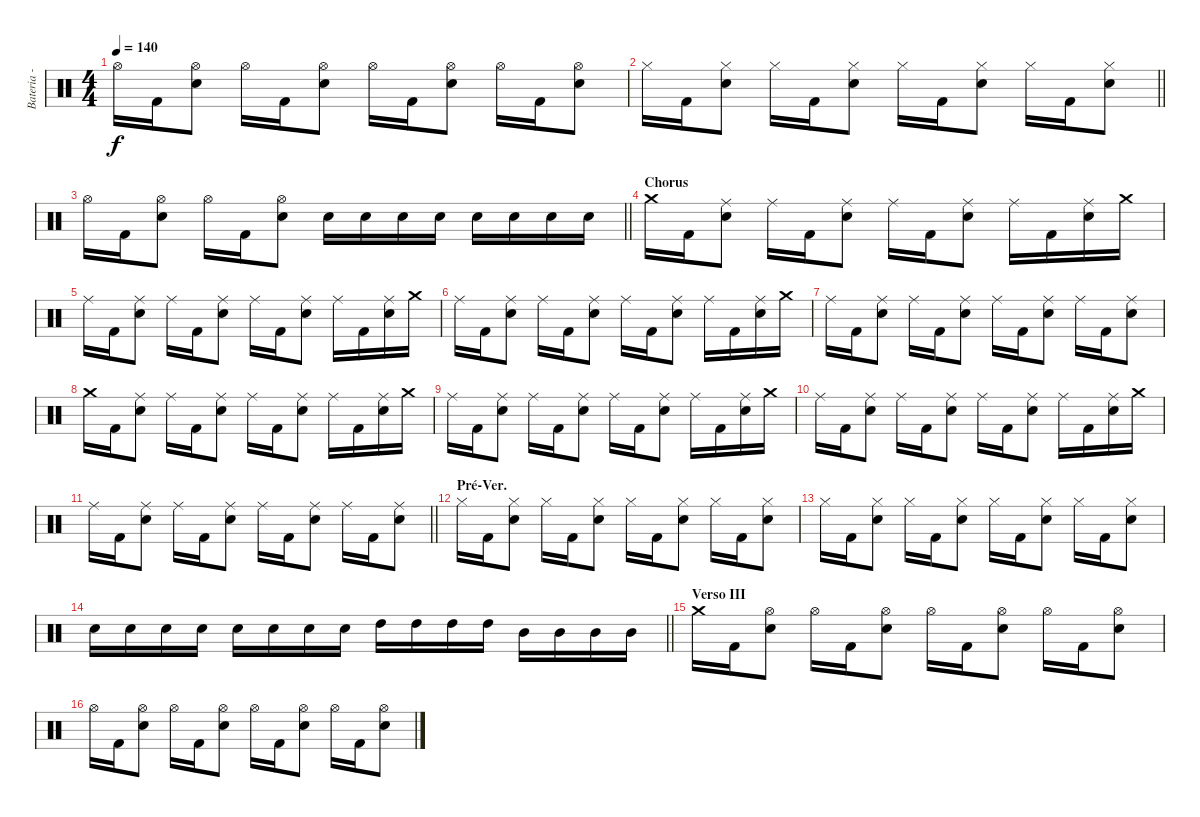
\track ("Bateria - Larzon" "Bateria - ") {instrument percussion}
\staff {score}
\articulation defaults
\ts (4 4)
\tempo 140
\clef neutral
\ks c "Hi-Hat (open)".16{dy f} "Kick (hit) 2".16
("Electric Snare (hit)" "Hi-Hat (open)").8 "Hi-Hat (open)".16 "Kick (hit) 2".16 ("Electric Snare (hit)" "Hi-Hat (open)").8 "Hi-Hat (open)".16 "Kick (hit) 2".16 ("Electric Snare (hit)" "Hi-Hat (open)").8 "Hi-Hat (open)".16 "Kick (hit) 2".16 ("Electric Snare (hit)" "Hi-Hat (open)").8 |
\barLineRight lightlight "Hi-Hat (closed)".16 "Kick (hit) 2".16
("Electric Snare (hit)" "Hi-Hat (closed)").8 "Hi-Hat (closed)".16 "Kick (hit) 2".16 ("Electric Snare (hit)" "Hi-Hat (closed)").8 "Hi-Hat (closed)".16 "Kick (hit) 2".16 ("Electric Snare (hit)" "Hi-Hat (closed)").8 "Hi-Hat (closed)".16 "Kick (hit) 2".16 ("Electric Snare (hit)" "Hi-Hat (closed)").8 |
\barLineRight lightlight "Hi-Hat (open)".16 "Kick (hit) 2".16
("Electric Snare (hit)" "Hi-Hat (open)").8 "Hi-Hat (open)".16 "Kick (hit) 2".16 ("Electric Snare (hit)" "Hi-Hat (open)").8 "Electric Snare (hit)".16 "Electric Snare (hit)".16 "Electric Snare (hit)".16 "Electric Snare (hit)".16 "Electric Snare (hit)".16 "Electric Snare (hit)".16 "Electric Snare (hit)".16 "Electric Snare (hit)".16 |
\section ("" "Chorus")
"Crash medium (hit)".16 "Kick (hit) 2".16 ("Electric Snare (hit)" "Ride (middle)").8 "Ride (middle)".16 "Kick (hit) 2".16 ("Electric Snare (hit)" "Ride (middle)").8 "Ride (middle)".16 "Kick (hit) 2".16 ("Electric Snare (hit)" "Ride (middle)").8 "Ride (middle)".16 "Kick (hit) 2".16 ("Electric Snare (hit)" "Ride (middle)").16 "Crash medium (hit)".16 |
"Ride (middle)".16 "Kick (hit) 2".16 ("Electric Snare (hit)" "Ride (middle)").8 "Ride (middle)".16 "Kick (hit) 2".16 ("Electric Snare (hit)" "Ride (middle)").8 "Ride (middle)".16 "Kick (hit) 2".16 ("Electric Snare (hit)" "Ride (middle)").8 "Ride (middle)".16 "Kick (hit) 2".16 ("Electric Snare (hit)" "Ride (middle)").16 "Crash medium (hit)".16 |
"Ride (middle)".16 "Kick (hit) 2".16 ("Electric Snare (hit)" "Ride (middle)").8 "Ride (middle)".16 "Kick (hit) 2".16 ("Electric Snare (hit)" "Ride (middle)").8 "Ride (middle)".16 "Kick (hit) 2".16 ("Electric Snare (hit)" "Ride (middle)").8 "Ride (middle)".16 "Kick (hit) 2".16 ("Electric Snare (hit)" "Ride (middle)").16 "Crash medium (hit)".16 |
"Ride (middle)".16 "Kick (hit) 2".16 ("Electric Snare (hit)" "Ride (middle)").8 "Ride (middle)".16 "Kick (hit) 2".16 ("Electric Snare (hit)" "Ride (middle)").8 "Ride (middle)".16 "Kick (hit) 2".16 ("Electric Snare (hit)" "Ride (middle)").8 "Ride (middle)".16 "Kick (hit) 2".16 ("Electric Snare (hit)" "Ride (middle)").8 |
"Crash medium (hit)".16 "Kick (hit) 2".16 ("Electric Snare (hit)" "Ride (middle)").8 "Ride (middle)".16 "Kick (hit) 2".16 ("Electric Snare (hit)" "Ride (middle)").8 "Ride (middle)".16 "Kick (hit) 2".16 ("Electric Snare (hit)" "Ride (middle)").8 "Ride (middle)".16 "Kick (hit) 2".16 ("Electric Snare (hit)" "Ride (middle)").16 "Crash medium (hit)".16 |
"Ride (middle)".16 "Kick (hit) 2".16 ("Electric Snare (hit)" "Ride (middle)").8 "Ride (middle)".16 "Kick (hit) 2".16 ("Electric Snare (hit)" "Ride (middle)").8 "Ride (middle)".16 "Kick (hit) 2".16 ("Electric Snare (hit)" "Ride (middle)").8 "Ride (middle)".16 "Kick (hit) 2".16 ("Electric Snare (hit)" "Ride (middle)").16 "Crash medium (hit)".16 |
"Ride (middle)".16 "Kick (hit) 2".16 ("Electric Snare (hit)" "Ride (middle)").8 "Ride (middle)".16 "Kick (hit) 2".16 ("Electric Snare (hit)" "Ride (middle)").8 "Ride (middle)".16 "Kick (hit) 2".16 ("Electric Snare (hit)" "Ride (middle)").8 "Ride (middle)".16 "Kick (hit) 2".16 ("Electric Snare (hit)" "Ride (middle)").16 "Crash medium (hit)".16 |
\barLineRight lightlight "Ride (middle)".16 "Kick (hit) 2".16
("Electric Snare (hit)" "Ride (middle)").8 "Ride (middle)".16 "Kick (hit) 2".16 ("Electric Snare (hit)" "Ride (middle)").8 "Ride (middle)".16 "Kick (hit) 2".16 ("Electric Snare (hit)" "Ride (middle)").8 "Ride (middle)".16 "Kick (hit) 2".16 ("Electric Snare (hit)" "Ride (middle)").8 |
\section ("" "Pré-Ver.")
"Hi-Hat (closed)".16 "Kick (hit) 2".16 ("Electric Snare (hit)" "Hi-Hat (closed)").8 "Hi-Hat (closed)".16 "Kick (hit) 2".16 ("Electric Snare (hit)" "Hi-Hat (closed)").8 "Hi-Hat (closed)".16 "Kick (hit) 2".16 ("Electric Snare (hit)" "Hi-Hat (closed)").8 "Hi-Hat (closed)".16 "Kick (hit) 2".16 ("Electric Snare (hit)" "Hi-Hat (closed)").8 |
"Hi-Hat (closed)".16 "Kick (hit) 2".16 ("Electric Snare (hit)" "Hi-Hat (closed)").8 "Hi-Hat (closed)".16 "Kick (hit) 2".16 ("Electric Snare (hit)" "Hi-Hat (closed)").8 "Hi-Hat (closed)".16 "Kick (hit) 2".16 ("Electric Snare (hit)" "Hi-Hat (closed)").8 "Hi-Hat (closed)".16 "Kick (hit) 2".16 ("Electric Snare (hit)" "Hi-Hat (closed)").8 |
\barLineRight lightlight "Electric Snare (hit)".16 "Electric Snare (hit)".16 "Electric Snare (hit)".16 "Electric Snare (hit)".16 "Electric Snare (hit)".16 "Electric Snare (hit)".16 "Electric Snare (hit)".16 "Electric Snare (hit)".16 "High Tom (hit)".16 "High Tom (hit)".16 "High Tom (hit)".16 "High Tom (hit)".16 "Mid Tom (hit)".16 "Mid Tom (hit)".16 "Mid Tom (hit)".16 "Mid Tom (hit)".16
|
\section ("" "Verso III")
"Crash medium (hit)".16 "Kick (hit) 2".16 ("Electric Snare (hit)" "Hi-Hat (open)").8 "Hi-Hat (open)".16 "Kick (hit) 2".16 ("Electric Snare (hit)" "Hi-Hat (open)").8 "Hi-Hat (open)".16 "Kick (hit) 2".16 ("Electric Snare (hit)" "Hi-Hat (open)").8 "Hi-Hat (open)".16 "Kick (hit) 2".16 ("Electric Snare (hit)" "Hi-Hat (open)").8 |
"Hi-Hat (open)".16 "Kick (hit) 2".16 ("Electric Snare (hit)" "Hi-Hat (open)").8 "Hi-Hat (open)".16 "Kick (hit) 2".16 ("Electric Snare (hit)" "Hi-Hat (open)").8 "Hi-Hat (open)".16 "Kick (hit) 2".16 ("Electric Snare (hit)" "Hi-Hat (open)").8 "Hi-Hat (open)".16 "Kick (hit) 2".16 ("Electric Snare (hit)" "Hi-Hat (open)").8
